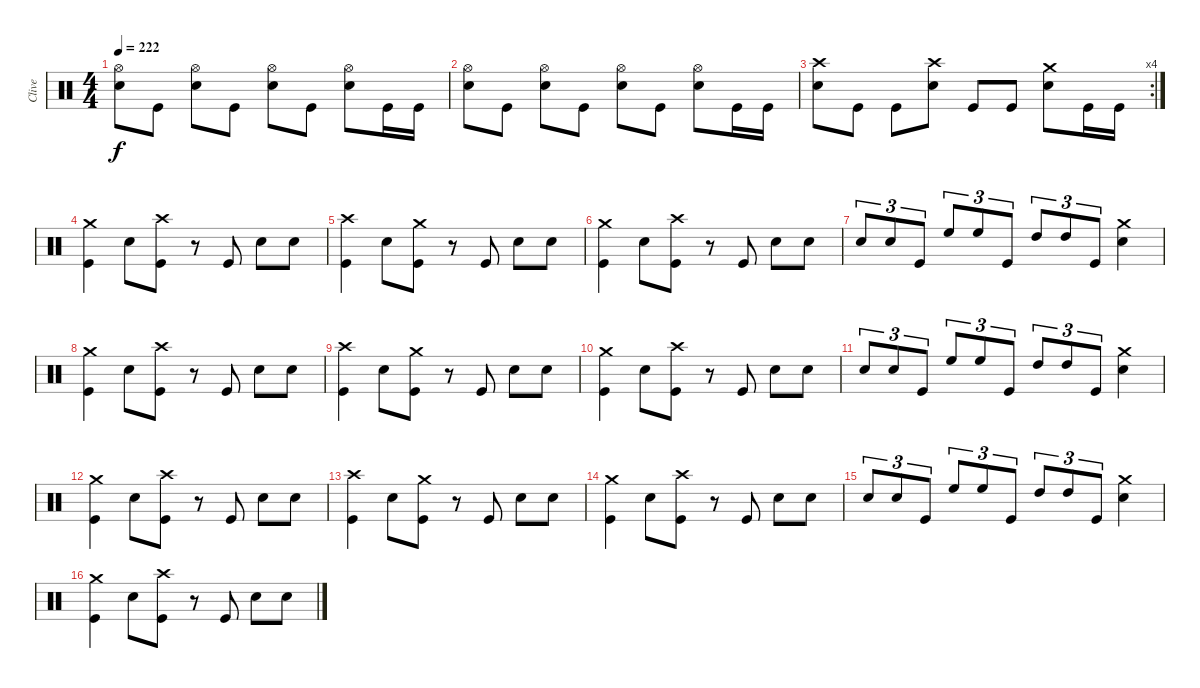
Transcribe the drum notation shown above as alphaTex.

\track ("Clive" "Clive") {instrument percussion}
\staff {score}
\articulation defaults
\ts (4 4)
\tempo 222
\clef neutral
\ks c
("Hi-Hat (open)" "Snare (hit) 2").8{dy f} "Kick (hit)".8 ("Hi-Hat (open)" "Snare (hit) 2").8 "Kick (hit)".8 ("Hi-Hat (open)" "Snare (hit) 2").8 "Kick (hit)".8 ("Hi-Hat (open)" "Snare (hit) 2").8 "Kick (hit)".16 "Kick (hit)".16 |
("Hi-Hat (open)" "Snare (hit) 2").8 "Kick (hit)".8 ("Hi-Hat (open)" "Snare (hit) 2").8 "Kick (hit)".8 ("Hi-Hat (open)" "Snare (hit) 2").8 "Kick (hit)".8 ("Hi-Hat (open)" "Snare (hit) 2").8 "Kick (hit)".16 "Kick (hit)".16 |
\rc 4
("Crash high (hit)" "Snare (hit) 2").8 "Kick (hit)".8 "Kick (hit)".8 ("Crash high (hit)" "Snare (hit) 2").8 "Kick (hit)".8 "Kick (hit)".8 ("Crash medium (hit)" "Snare (hit) 2").8 "Kick (hit)".16 "Kick (hit)".16 |
("Crash medium (hit)" "Kick (hit)").4 "Snare (hit) 2".8 ("Crash high (hit)" "Kick (hit)").8 r.8 "Kick (hit)".8 "Snare (hit) 2".8 "Snare (hit) 2".8 |
("Crash high (hit)" "Kick (hit)").4 "Snare (hit) 2".8 ("Crash medium (hit)" "Kick (hit)").8 r.8 "Kick (hit)".8 "Snare (hit) 2".8 "Snare (hit) 2".8 |
("Crash medium (hit)" "Kick (hit)").4 "Snare (hit) 2".8 ("Crash high (hit)" "Kick (hit)").8 r.8 "Kick (hit)".8 "Snare (hit) 2".8 "Snare (hit) 2".8 |
"Snare (hit) 2".8{tu (3 2)} "Snare (hit) 2".8{tu (3 2)} "Kick (hit)".8{tu (3 2)} "High Floor Tom (hit)".8{tu (3 2)} "High Floor Tom (hit)".8{tu (3 2)} "Kick (hit)".8{tu (3 2)} "High Tom (hit)".8{tu (3 2)} "High Tom (hit)".8{tu (3 2)} "Kick (hit)".8{tu (3 2)} ("Crash medium (hit)" "Snare (hit) 2").4 |
("Crash medium (hit)" "Kick (hit)").4 "Snare (hit) 2".8 ("Crash high (hit)" "Kick (hit)").8 r.8 "Kick (hit)".8 "Snare (hit) 2".8 "Snare (hit) 2".8 |
("Crash high (hit)" "Kick (hit)").4 "Snare (hit) 2".8 ("Crash medium (hit)" "Kick (hit)").8 r.8 "Kick (hit)".8 "Snare (hit) 2".8 "Snare (hit) 2".8 |
("Crash medium (hit)" "Kick (hit)").4 "Snare (hit) 2".8 ("Crash high (hit)" "Kick (hit)").8 r.8 "Kick (hit)".8 "Snare (hit) 2".8 "Snare (hit) 2".8 |
"Snare (hit) 2".8{tu (3 2)} "Snare (hit) 2".8{tu (3 2)} "Kick (hit)".8{tu (3 2)} "High Floor Tom (hit)".8{tu (3 2)} "High Floor Tom (hit)".8{tu (3 2)} "Kick (hit)".8{tu (3 2)} "High Tom (hit)".8{tu (3 2)} "High Tom (hit)".8{tu (3 2)} "Kick (hit)".8{tu (3 2)} ("Crash medium (hit)" "Snare (hit) 2").4 |
("Crash medium (hit)" "Kick (hit)").4 "Snare (hit) 2".8 ("Crash high (hit)" "Kick (hit)").8 r.8 "Kick (hit)".8 "Snare (hit) 2".8 "Snare (hit) 2".8 |
("Crash high (hit)" "Kick (hit)").4 "Snare (hit) 2".8 ("Crash medium (hit)" "Kick (hit)").8 r.8 "Kick (hit)".8 "Snare (hit) 2".8 "Snare (hit) 2".8 |
("Crash medium (hit)" "Kick (hit)").4 "Snare (hit) 2".8 ("Crash high (hit)" "Kick (hit)").8 r.8 "Kick (hit)".8 "Snare (hit) 2".8 "Snare (hit) 2".8 |
"Snare (hit) 2".8{tu (3 2)} "Snare (hit) 2".8{tu (3 2)} "Kick (hit)".8{tu (3 2)} "High Floor Tom (hit)".8{tu (3 2)} "High Floor Tom (hit)".8{tu (3 2)} "Kick (hit)".8{tu (3 2)} "High Tom (hit)".8{tu (3 2)} "High Tom (hit)".8{tu (3 2)} "Kick (hit)".8{tu (3 2)} ("Crash medium (hit)" "Snare (hit) 2").4 |
("Crash medium (hit)" "Kick (hit)").4 "Snare (hit) 2".8 ("Crash high (hit)" "Kick (hit)").8 r.8 "Kick (hit)".8 "Snare (hit) 2".8 "Snare (hit) 2".8
